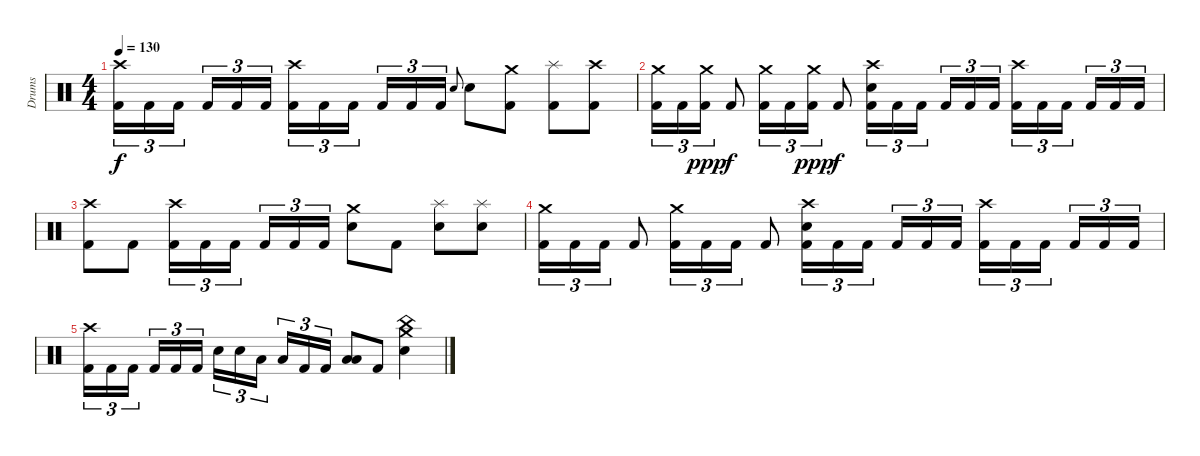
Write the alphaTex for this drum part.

\track ("Drums" "Drums") {instrument percussion}
\staff {score}
\articulation defaults
\ts (4 4)
\tempo 130
\clef neutral
\ks c
("Crash high (hit)" "Kick (hit) 2").16{tu (3 2) dy f} "Kick (hit) 2".16{tu (3 2)} "Kick (hit) 2".16{tu (3 2) beam splitsecondary} "Kick (hit) 2".16{tu (3 2)} "Kick (hit) 2".16{tu (3 2)} "Kick (hit) 2".16{tu (3 2)} ("Crash high (hit)" "Kick (hit) 2").16{tu (3 2)} "Kick (hit) 2".16{tu (3 2)} "Kick (hit) 2".16{tu (3 2) beam splitsecondary} "Kick (hit) 2".16{tu (3 2)} "Kick (hit) 2".16{tu (3 2)} "Kick (hit) 2".16{tu (3 2)} "Electric Snare (hit)".8{gr onbeat} "Electric Snare (hit)".8 ("Crash medium (hit)" "Kick (hit) 2").8 ("Splash (hit)" "Kick (hit) 2").8 ("Crash high (hit)" "Kick (hit) 2").8 |
("Crash medium (hit)" "Kick (hit) 2").16{tu (3 2)} "Kick (hit) 2".16{tu (3 2)} ("Crash medium (hit)" "Kick (hit) 2").16{tu (3 2) dy ppp} "Kick (hit) 2".8{dy f} ("Crash medium (hit)" "Kick (hit) 2").16{tu (3 2)} "Kick (hit) 2".16{tu (3 2)} ("Crash medium (hit)" "Kick (hit) 2").16{tu (3 2) dy ppp} "Kick (hit) 2".8{dy f} ("Crash high (hit)" "Kick (hit) 2" "Electric Snare (hit)").16{tu (3 2)} "Kick (hit) 2".16{tu (3 2)} "Kick (hit) 2".16{tu (3 2) beam splitsecondary} "Kick (hit) 2".16{tu (3 2)} "Kick (hit) 2".16{tu (3 2)} "Kick (hit) 2".16{tu (3 2)} ("Crash high (hit)" "Kick (hit) 2").16{tu (3 2)} "Kick (hit) 2".16{tu (3 2)} "Kick (hit) 2".16{tu (3 2) beam splitsecondary} "Kick (hit) 2".16{tu (3 2)} "Kick (hit) 2".16{tu (3 2)} "Kick (hit) 2".16{tu (3 2)} |
("Kick (hit) 2" "Crash high (hit)").8 "Kick (hit) 2".8 ("Crash high (hit)" "Kick (hit) 2").16{tu (3 2)} "Kick (hit) 2".16{tu (3 2)} "Kick (hit) 2".16{tu (3 2) beam splitsecondary} "Kick (hit) 2".16{tu (3 2)} "Kick (hit) 2".16{tu (3 2)} "Kick (hit) 2".16{tu (3 2)} ("Crash medium (hit)" "Electric Snare (hit)").8 "Kick (hit) 2".8 ("Electric Snare (hit)" "Splash (hit)").8 ("Electric Snare (hit)" "Splash (hit)").8 |
("Crash medium (hit)" "Kick (hit) 2").16{tu (3 2)} "Kick (hit) 2".16{tu (3 2)} "Kick (hit) 2".16{tu (3 2)} "Kick (hit) 2".8 ("Crash medium (hit)" "Kick (hit) 2").16{tu (3 2)} "Kick (hit) 2".16{tu (3 2)} "Kick (hit) 2".16{tu (3 2)} "Kick (hit) 2".8 ("Crash high (hit)" "Kick (hit) 2" "Electric Snare (hit)").16{tu (3 2)} "Kick (hit) 2".16{tu (3 2)} "Kick (hit) 2".16{tu (3 2) beam splitsecondary} "Kick (hit) 2".16{tu (3 2)} "Kick (hit) 2".16{tu (3 2)} "Kick (hit) 2".16{tu (3 2)} ("Crash high (hit)" "Kick (hit) 2").16{tu (3 2)} "Kick (hit) 2".16{tu (3 2)} "Kick (hit) 2".16{tu (3 2) beam splitsecondary} "Kick (hit) 2".16{tu (3 2)} "Kick (hit) 2".16{tu (3 2)} "Kick (hit) 2".16{tu (3 2)} |
("Crash high (hit)" "Kick (hit) 2").16{tu (3 2)} "Kick (hit) 2".16{tu (3 2)} "Kick (hit) 2".16{tu (3 2) beam splitsecondary} "Kick (hit) 2".16{tu (3 2)} "Kick (hit) 2".16{tu (3 2)} "Kick (hit) 2".16{tu (3 2)} "Electric Snare (hit)".16{tu (3 2)} "Electric Snare (hit)".16{tu (3 2)} "Low Tom (hit)".16{tu (3 2) beam splitsecondary} "Low Tom (hit)".16{tu (3 2)} "Kick (hit) 2".16{tu (3 2)} "Kick (hit) 2".16{tu (3 2)} ("Low Tom (hit)" "Low Floor Tom (hit)").8 "Kick (hit) 2".8 ("Electric Snare (hit)" "Crash medium (hit)" "China (hit)").4
